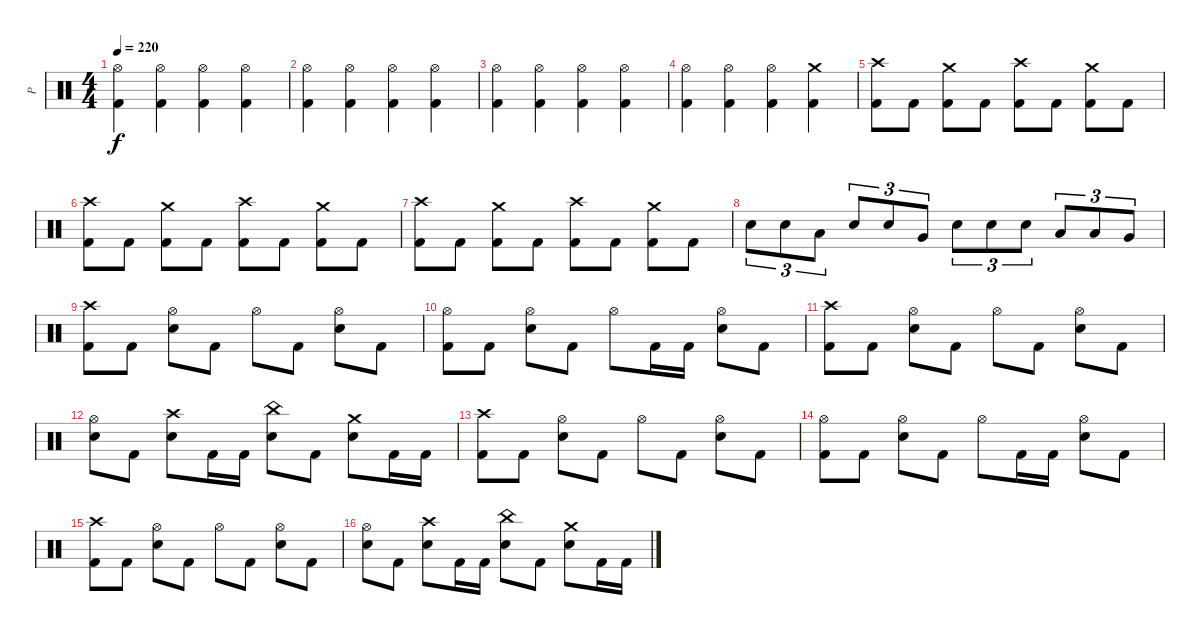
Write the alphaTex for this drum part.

\track ("P" "P") {instrument percussion}
\staff {score}
\articulation defaults
\ts (4 4)
\tempo 220
\clef neutral
\ks c
("Hi-Hat (open)" "Kick (hit) 2").4{dy f} ("Hi-Hat (open)" "Kick (hit) 2").4 ("Hi-Hat (open)" "Kick (hit) 2").4 ("Hi-Hat (open)" "Kick (hit) 2").4 |
("Hi-Hat (open)" "Kick (hit) 2").4 ("Hi-Hat (open)" "Kick (hit) 2").4 ("Hi-Hat (open)" "Kick (hit) 2").4 ("Hi-Hat (open)" "Kick (hit) 2").4 |
("Hi-Hat (open)" "Kick (hit) 2").4 ("Hi-Hat (open)" "Kick (hit) 2").4 ("Hi-Hat (open)" "Kick (hit) 2").4 ("Hi-Hat (open)" "Kick (hit) 2").4 |
("Hi-Hat (open)" "Kick (hit) 2").4 ("Hi-Hat (open)" "Kick (hit) 2").4 ("Hi-Hat (open)" "Kick (hit) 2").4 ("Crash medium (hit)" "Kick (hit) 2").4 |
("Crash high (hit)" "Kick (hit) 2").8 "Kick (hit) 2".8 ("Crash medium (hit)" "Kick (hit) 2").8 "Kick (hit) 2".8 ("Crash high (hit)" "Kick (hit) 2").8 "Kick (hit) 2".8 ("Crash medium (hit)" "Kick (hit) 2").8 "Kick (hit) 2".8 |
("Crash high (hit)" "Kick (hit) 2").8 "Kick (hit) 2".8 ("Crash medium (hit)" "Kick (hit) 2").8 "Kick (hit) 2".8 ("Crash high (hit)" "Kick (hit) 2").8 "Kick (hit) 2".8 ("Crash medium (hit)" "Kick (hit) 2").8 "Kick (hit) 2".8 |
("Crash high (hit)" "Kick (hit) 2").8 "Kick (hit) 2".8 ("Crash medium (hit)" "Kick (hit) 2").8 "Kick (hit) 2".8 ("Crash high (hit)" "Kick (hit) 2").8 "Kick (hit) 2".8 ("Crash medium (hit)" "Kick (hit) 2").8 "Kick (hit) 2".8 |
"Electric Snare (hit)".8{tu (3 2)} "Electric Snare (hit)".8{tu (3 2)} "Low Tom (hit)".8{tu (3 2)} "Electric Snare (hit)".8{tu (3 2)} "Electric Snare (hit)".8{tu (3 2)} "Very Low Tom (hit)".8{tu (3 2)} "Electric Snare (hit)".8{tu (3 2)} "Electric Snare (hit)".8{tu (3 2)} "Electric Snare (hit)".8{tu (3 2)} "Low Tom (hit)".8{tu (3 2)} "Low Tom (hit)".8{tu (3 2)} "Very Low Tom (hit)".8{tu (3 2)} |
("Crash high (hit)" "Kick (hit) 2").8 "Kick (hit) 2".8 ("Hi-Hat (open)" "Electric Snare (hit)").8 "Kick (hit) 2".8 "Hi-Hat (open)".8 "Kick (hit) 2".8 ("Hi-Hat (open)" "Electric Snare (hit)").8 "Kick (hit) 2".8 |
("Hi-Hat (open)" "Kick (hit) 2").8 "Kick (hit) 2".8 ("Hi-Hat (open)" "Electric Snare (hit)").8 "Kick (hit) 2".8 "Hi-Hat (open)".8 "Kick (hit) 2".16 "Kick (hit) 2".16 ("Hi-Hat (open)" "Electric Snare (hit)").8 "Kick (hit) 2".8 |
("Crash high (hit)" "Kick (hit) 2").8 "Kick (hit) 2".8 ("Hi-Hat (open)" "Electric Snare (hit)").8 "Kick (hit) 2".8 "Hi-Hat (open)".8 "Kick (hit) 2".8 ("Hi-Hat (open)" "Electric Snare (hit)").8 "Kick (hit) 2".8 |
("Hi-Hat (open)" "Electric Snare (hit)").8 "Kick (hit) 2".8 ("Crash high (hit)" "Electric Snare (hit)").8 "Kick (hit) 2".16 "Kick (hit) 2".16 ("China (hit)" "Electric Snare (hit)").8 "Kick (hit) 2".8 ("Crash medium (hit)" "Electric Snare (hit)").8 "Kick (hit) 2".16 "Kick (hit) 2".16 |
("Crash high (hit)" "Kick (hit) 2").8 "Kick (hit) 2".8 ("Hi-Hat (open)" "Electric Snare (hit)").8 "Kick (hit) 2".8 "Hi-Hat (open)".8 "Kick (hit) 2".8 ("Hi-Hat (open)" "Electric Snare (hit)").8 "Kick (hit) 2".8 |
("Hi-Hat (open)" "Kick (hit) 2").8 "Kick (hit) 2".8 ("Hi-Hat (open)" "Electric Snare (hit)").8 "Kick (hit) 2".8 "Hi-Hat (open)".8 "Kick (hit) 2".16 "Kick (hit) 2".16 ("Hi-Hat (open)" "Electric Snare (hit)").8 "Kick (hit) 2".8 |
("Crash high (hit)" "Kick (hit) 2").8 "Kick (hit) 2".8 ("Hi-Hat (open)" "Electric Snare (hit)").8 "Kick (hit) 2".8 "Hi-Hat (open)".8 "Kick (hit) 2".8 ("Hi-Hat (open)" "Electric Snare (hit)").8 "Kick (hit) 2".8 |
("Hi-Hat (open)" "Electric Snare (hit)").8 "Kick (hit) 2".8 ("Crash high (hit)" "Electric Snare (hit)").8 "Kick (hit) 2".16 "Kick (hit) 2".16 ("China (hit)" "Electric Snare (hit)").8 "Kick (hit) 2".8 ("Crash medium (hit)" "Electric Snare (hit)").8 "Kick (hit) 2".16 "Kick (hit) 2".16
